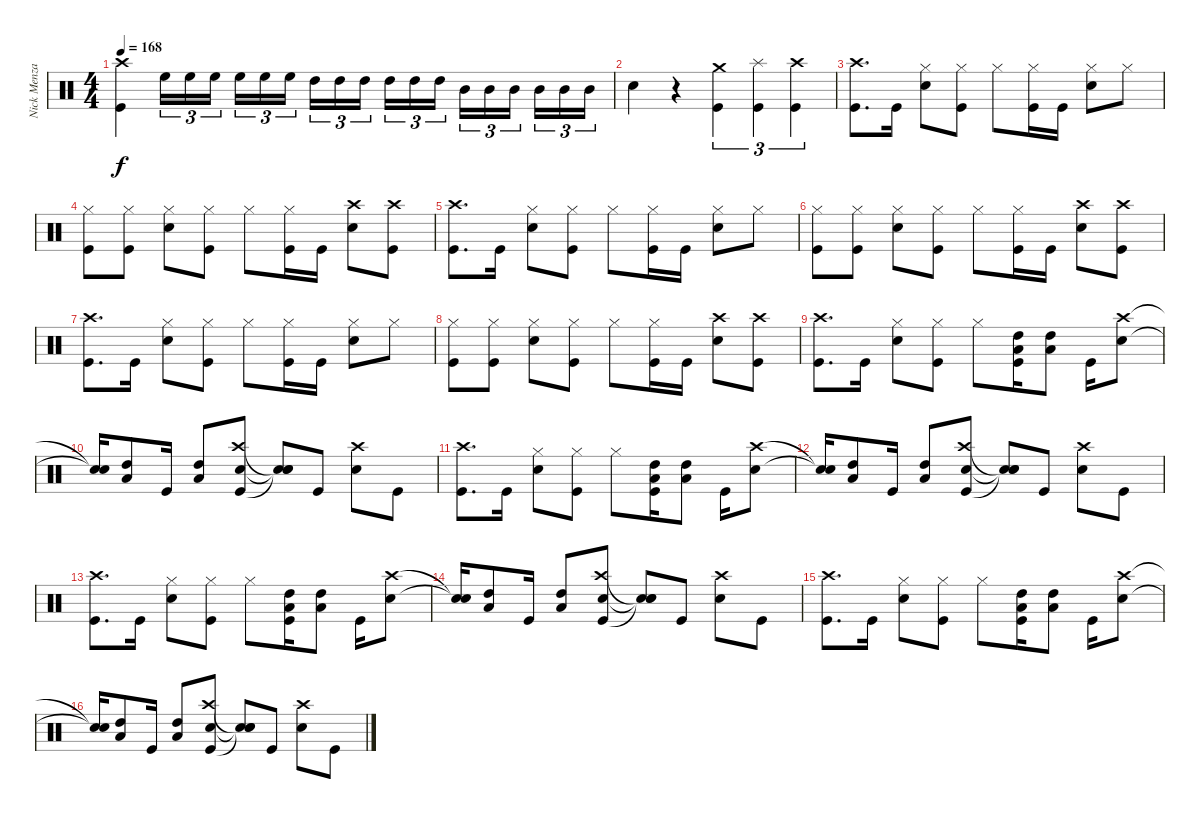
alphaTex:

\track ("Nick Menza" "Nick Menza") {instrument percussion}
\staff {score}
\articulation defaults
\ts (4 4)
\tempo 168
\clef neutral
\ks c
("Kick (hit)" "Crash high (hit)").4{dy f} "High Floor Tom (hit)".16{tu (3 2)} "High Floor Tom (hit)".16{tu (3 2)} "High Floor Tom (hit)".16{tu (3 2) beam splitsecondary} "High Floor Tom (hit)".16{tu (3 2)} "High Floor Tom (hit)".16{tu (3 2)} "High Floor Tom (hit)".16{tu (3 2)} "High Tom (hit)".16{tu (3 2)} "High Tom (hit)".16{tu (3 2)} "High Tom (hit)".16{tu (3 2) beam splitsecondary} "High Tom (hit)".16{tu (3 2)} "High Tom (hit)".16{tu (3 2)} "High Tom (hit)".16{tu (3 2)} "Mid Tom (hit)".16{tu (3 2)} "Mid Tom (hit)".16{tu (3 2)} "Mid Tom (hit)".16{tu (3 2) beam splitsecondary} "Mid Tom (hit)".16{tu (3 2)} "Mid Tom (hit)".16{tu (3 2)} "Mid Tom (hit)".16{tu (3 2)} |
"Snare (hit) 2".4 r.4 ("Kick (hit)" "Crash medium (hit)").4{tu (3 2)} ("Kick (hit)" "Splash (hit)").4{tu (3 2)} ("Kick (hit)" "Crash high (hit)").4{tu (3 2)} |
("Kick (hit)" "Crash high (hit)").8{d} "Kick (hit)".16 ("Hi-Hat (closed)" "Snare (hit) 2").8 ("Kick (hit)" "Hi-Hat (closed)").8 "Hi-Hat (closed)".8 ("Kick (hit)" "Hi-Hat (closed)").16 "Kick (hit)".16 ("Hi-Hat (closed)" "Snare (hit) 2").8 "Hi-Hat (closed)".8 |
("Kick (hit)" "Hi-Hat (closed)").8 ("Kick (hit)" "Hi-Hat (closed)").8 ("Hi-Hat (closed)" "Snare (hit) 2").8 ("Kick (hit)" "Hi-Hat (closed)").8 "Hi-Hat (closed)".8 ("Kick (hit)" "Hi-Hat (closed)").16 "Kick (hit)".16 ("Crash high (hit)" "Snare (hit) 2").8 ("Kick (hit)" "Crash high (hit)").8 |
("Kick (hit)" "Crash high (hit)").8{d} "Kick (hit)".16 ("Hi-Hat (closed)" "Snare (hit) 2").8 ("Kick (hit)" "Hi-Hat (closed)").8 "Hi-Hat (closed)".8 ("Kick (hit)" "Hi-Hat (closed)").16 "Kick (hit)".16 ("Hi-Hat (closed)" "Snare (hit) 2").8 "Hi-Hat (closed)".8 |
("Kick (hit)" "Hi-Hat (closed)").8 ("Kick (hit)" "Hi-Hat (closed)").8 ("Hi-Hat (closed)" "Snare (hit) 2").8 ("Kick (hit)" "Hi-Hat (closed)").8 "Hi-Hat (closed)".8 ("Kick (hit)" "Hi-Hat (closed)").16 "Kick (hit)".16 ("Crash high (hit)" "Snare (hit) 2").8 ("Kick (hit)" "Crash high (hit)").8 |
("Kick (hit)" "Crash high (hit)").8{d} "Kick (hit)".16 ("Hi-Hat (closed)" "Snare (hit) 2").8 ("Kick (hit)" "Hi-Hat (closed)").8 "Hi-Hat (closed)".8 ("Kick (hit)" "Hi-Hat (closed)").16 "Kick (hit)".16 ("Hi-Hat (closed)" "Snare (hit) 2").8 "Hi-Hat (closed)".8 |
("Kick (hit)" "Hi-Hat (closed)").8 ("Kick (hit)" "Hi-Hat (closed)").8 ("Hi-Hat (closed)" "Snare (hit) 2").8 ("Kick (hit)" "Hi-Hat (closed)").8 "Hi-Hat (closed)".8 ("Kick (hit)" "Hi-Hat (closed)").16 "Kick (hit)".16 ("Crash high (hit)" "Snare (hit) 2").8 ("Kick (hit)" "Crash high (hit)").8 |
("Kick (hit)" "Crash high (hit)").8{d} "Kick (hit)".16 ("Hi-Hat (closed)" "Snare (hit) 2").8 ("Kick (hit)" "Hi-Hat (closed)").8 "Hi-Hat (closed)".8 ("Kick (hit)" "Low Tom (hit)" "High Tom (hit)").16 ("Low Tom (hit)" "High Tom (hit)").8 "Kick (hit)".16 ("Crash high (hit)" "Snare (hit) 2").8 |
("Snare (hit)"{t} "Snare (hit)"{t}).16 ("Low Tom (hit)" "High Tom (hit)").8 "Kick (hit)".16 ("Low Tom (hit)" "High Tom (hit)").8 ("Kick (hit)" "Snare (hit) 2" "Crash high (hit)").8 ("Snare (hit)"{t} "Snare (hit)"{t} "Snare (hit)"{t}).8 "Kick (hit)".8 ("Snare (hit) 2" "Crash high (hit)").8 "Kick (hit)".8 |
("Kick (hit)" "Crash high (hit)").8{d} "Kick (hit)".16 ("Hi-Hat (closed)" "Snare (hit) 2").8 ("Kick (hit)" "Hi-Hat (closed)").8 "Hi-Hat (closed)".8 ("Kick (hit)" "Low Tom (hit)" "High Tom (hit)").16 ("Low Tom (hit)" "High Tom (hit)").8 "Kick (hit)".16 ("Crash high (hit)" "Snare (hit) 2").8 |
("Snare (hit)"{t} "Snare (hit)"{t}).16 ("Low Tom (hit)" "High Tom (hit)").8 "Kick (hit)".16 ("Low Tom (hit)" "High Tom (hit)").8 ("Kick (hit)" "Snare (hit) 2" "Crash high (hit)").8 ("Snare (hit)"{t} "Snare (hit)"{t} "Snare (hit)"{t}).8 "Kick (hit)".8 ("Snare (hit) 2" "Crash high (hit)").8 "Kick (hit)".8 |
("Kick (hit)" "Crash high (hit)").8{d} "Kick (hit)".16 ("Hi-Hat (closed)" "Snare (hit) 2").8 ("Kick (hit)" "Hi-Hat (closed)").8 "Hi-Hat (closed)".8 ("Kick (hit)" "Low Tom (hit)" "High Tom (hit)").16 ("Low Tom (hit)" "High Tom (hit)").8 "Kick (hit)".16 ("Crash high (hit)" "Snare (hit) 2").8 |
("Snare (hit)"{t} "Snare (hit)"{t}).16 ("Low Tom (hit)" "High Tom (hit)").8 "Kick (hit)".16 ("Low Tom (hit)" "High Tom (hit)").8 ("Kick (hit)" "Snare (hit) 2" "Crash high (hit)").8 ("Snare (hit)"{t} "Snare (hit)"{t} "Snare (hit)"{t}).8 "Kick (hit)".8 ("Snare (hit) 2" "Crash high (hit)").8 "Kick (hit)".8 |
("Kick (hit)" "Crash high (hit)").8{d} "Kick (hit)".16 ("Hi-Hat (closed)" "Snare (hit) 2").8 ("Kick (hit)" "Hi-Hat (closed)").8 "Hi-Hat (closed)".8 ("Kick (hit)" "Low Tom (hit)" "High Tom (hit)").16 ("Low Tom (hit)" "High Tom (hit)").8 "Kick (hit)".16 ("Crash high (hit)" "Snare (hit) 2").8 |
("Snare (hit)"{t} "Snare (hit)"{t}).16 ("Low Tom (hit)" "High Tom (hit)").8 "Kick (hit)".16 ("Low Tom (hit)" "High Tom (hit)").8 ("Kick (hit)" "Snare (hit) 2" "Crash high (hit)").8 ("Snare (hit)"{t} "Snare (hit)"{t} "Snare (hit)"{t}).8 "Kick (hit)".8 ("Snare (hit) 2" "Crash high (hit)").8 "Kick (hit)".8
